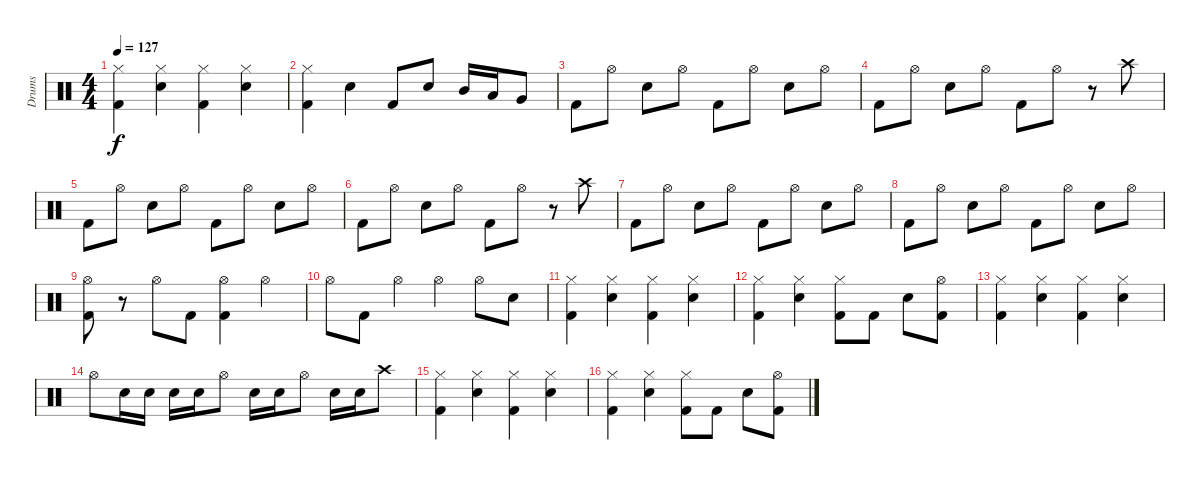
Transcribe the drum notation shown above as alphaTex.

\track ("Drums" "Drums") {instrument percussion}
\staff {score}
\articulation defaults
\ts (4 4)
\tempo 127
\clef neutral
\ks c
("Hi-Hat (closed)" "Kick (hit) 2").4{dy f} ("Hi-Hat (closed)" "Snare (hit) 2").4 ("Hi-Hat (closed)" "Kick (hit) 2").4 ("Hi-Hat (closed)" "Snare (hit) 2").4 |
("Hi-Hat (closed)" "Kick (hit) 2").4 "Snare (hit) 2".4 "Kick (hit) 2".8 "Snare (hit) 2".8 "Mid Tom (hit)".16 "Low Tom (hit)".16 "Very Low Tom (hit)".8 |
"Kick (hit) 2".8 "Hi-Hat (open)".8 "Snare (hit) 2".8 "Hi-Hat (open)".8 "Kick (hit) 2".8 "Hi-Hat (open)".8 "Snare (hit) 2".8 "Hi-Hat (open)".8 |
"Kick (hit) 2".8 "Hi-Hat (open)".8 "Snare (hit) 2".8 "Hi-Hat (open)".8 "Kick (hit) 2".8 "Hi-Hat (open)".8 r.8 "Crash high (hit)".8 |
"Kick (hit) 2".8 "Hi-Hat (open)".8 "Snare (hit) 2".8 "Hi-Hat (open)".8 "Kick (hit) 2".8 "Hi-Hat (open)".8 "Snare (hit) 2".8 "Hi-Hat (open)".8 |
"Kick (hit) 2".8 "Hi-Hat (open)".8 "Snare (hit) 2".8 "Hi-Hat (open)".8 "Kick (hit) 2".8 "Hi-Hat (open)".8 r.8 "Crash high (hit)".8 |
"Kick (hit) 2".8 "Hi-Hat (open)".8 "Snare (hit) 2".8 "Hi-Hat (open)".8 "Kick (hit) 2".8 "Hi-Hat (open)".8 "Snare (hit) 2".8 "Hi-Hat (open)".8 |
"Kick (hit) 2".8 "Hi-Hat (open)".8 "Snare (hit) 2".8 "Hi-Hat (open)".8 "Kick (hit) 2".8 "Hi-Hat (open)".8 "Snare (hit) 2".8 "Hi-Hat (open)".8 |
("Hi-Hat (open)" "Kick (hit) 2").8 r.8 "Hi-Hat (open)".8 "Kick (hit) 2".8 ("Hi-Hat (open)" "Kick (hit) 2").4 "Hi-Hat (open)".4 |
"Hi-Hat (open)".8 "Kick (hit) 2".8 "Hi-Hat (open)".4 "Hi-Hat (open)".4 "Hi-Hat (open)".8 "Snare (hit) 2".8 |
("Hi-Hat (closed)" "Kick (hit) 2").4 ("Hi-Hat (closed)" "Snare (hit) 2").4 ("Hi-Hat (closed)" "Kick (hit) 2").4 ("Hi-Hat (closed)" "Snare (hit) 2").4 |
("Hi-Hat (closed)" "Kick (hit) 2").4 ("Hi-Hat (closed)" "Snare (hit) 2").4 ("Hi-Hat (closed)" "Kick (hit) 2").8 "Kick (hit) 2".8 "Snare (hit) 2".8 ("Hi-Hat (open)" "Kick (hit) 2").8 |
("Hi-Hat (closed)" "Kick (hit) 2").4 ("Hi-Hat (closed)" "Snare (hit) 2").4 ("Hi-Hat (closed)" "Kick (hit) 2").4 ("Hi-Hat (closed)" "Snare (hit) 2").4 |
"Hi-Hat (open)".8 "Snare (hit) 2".16 "Snare (hit) 2".16 "Snare (hit) 2".16 "Snare (hit) 2".16 "Hi-Hat (open)".8 "Snare (hit) 2".16 "Snare (hit) 2".16 "Hi-Hat (open)".8 "Snare (hit) 2".16 "Snare (hit) 2".16 "Crash high (hit)".8 |
("Hi-Hat (closed)" "Kick (hit) 2").4 ("Hi-Hat (closed)" "Snare (hit) 2").4 ("Hi-Hat (closed)" "Kick (hit) 2").4 ("Hi-Hat (closed)" "Snare (hit) 2").4 |
("Hi-Hat (closed)" "Kick (hit) 2").4 ("Hi-Hat (closed)" "Snare (hit) 2").4 ("Hi-Hat (closed)" "Kick (hit) 2").8 "Kick (hit) 2".8 "Snare (hit) 2".8 ("Hi-Hat (open)" "Kick (hit) 2").8
